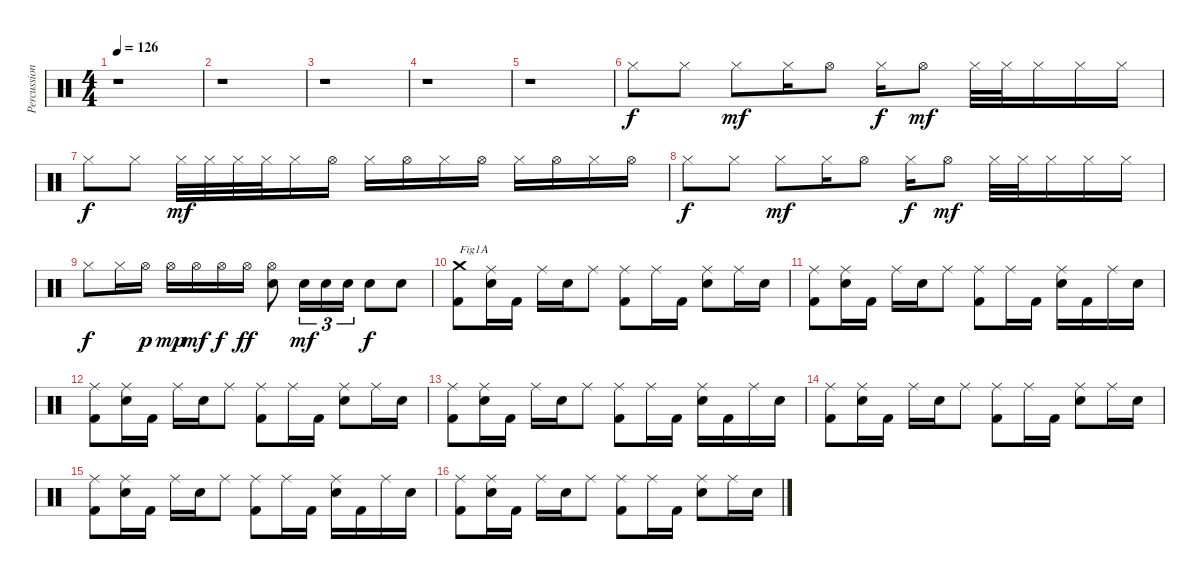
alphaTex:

\track ("Percussions" "Percussion") {instrument percussion}
\staff {score}
\articulation defaults
\ts (4 4)
\tempo 126
\clef neutral
\ks c
r.1{dy f} |
r.1 |
r.1 |
r.1 |
r.1 |
"Hi-Hat (closed)".8 "Hi-Hat (closed)".8 "Hi-Hat (closed)".8{dy mf} "Hi-Hat (closed)".16 "Hi-Hat (open)".8 "Hi-Hat (closed)".16{dy f} "Hi-Hat (open)".8{dy mf} "Hi-Hat (closed)".32 "Hi-Hat (closed)".32 "Hi-Hat (closed)".16 "Hi-Hat (closed)".16 "Hi-Hat (closed)".16 |
"Hi-Hat (closed)".8{dy f} "Hi-Hat (closed)".8 "Hi-Hat (closed)".32{dy mf} "Hi-Hat (closed)".32 "Hi-Hat (closed)".32 "Hi-Hat (closed)".32 "Hi-Hat (closed)".16 "Hi-Hat (open)".16 "Hi-Hat (closed)".16 "Hi-Hat (open)".16 "Hi-Hat (closed)".16 "Hi-Hat (open)".16 "Hi-Hat (closed)".16 "Hi-Hat (open)".16 "Hi-Hat (closed)".16 "Hi-Hat (open)".16 |
"Hi-Hat (closed)".8{dy f} "Hi-Hat (closed)".8 "Hi-Hat (closed)".8{dy mf} "Hi-Hat (closed)".16 "Hi-Hat (open)".8 "Hi-Hat (closed)".16{dy f} "Hi-Hat (open)".8{dy mf} "Hi-Hat (closed)".32 "Hi-Hat (closed)".32 "Hi-Hat (closed)".16 "Hi-Hat (closed)".16 "Hi-Hat (closed)".16 |
"Hi-Hat (closed)".8{dy f} "Hi-Hat (closed)".16 "Hi-Hat (open)".16{dy p} "Hi-Hat (open)".16{dy mp} "Hi-Hat (open)".16{dy mf} "Hi-Hat (open)".16{dy f} "Hi-Hat (open)".16{dy ff} ("Electric Snare (hit)" "Hi-Hat (open)").8 "Electric Snare (hit)".16{tu (3 2) dy mf} "Electric Snare (hit)".16{tu (3 2)} "Electric Snare (hit)".16{tu (3 2)} "Electric Snare (hit)".8{dy f} "Electric Snare (hit)".8 |
("Kick (hit) 2" "Crash medium (hit)").8{txt "Fig1A"} ("Electric Snare (hit)" "Ride (middle)").16 "Kick (hit) 2".16 "Ride (middle)".16 "Electric Snare (hit)".16 "Ride (middle)".8 ("Kick (hit) 2" "Ride (middle)").8 "Ride (middle)".16 "Kick (hit) 2".16 ("Electric Snare (hit)" "Ride (middle)").8 "Ride (middle)".16 "Electric Snare (hit)".16 |
("Kick (hit) 2" "Ride (middle)").8 ("Electric Snare (hit)" "Ride (middle)").16 "Kick (hit) 2".16 "Ride (middle)".16 "Electric Snare (hit)".16 "Ride (middle)".8 ("Kick (hit) 2" "Ride (middle)").8 "Ride (middle)".16 "Kick (hit) 2".16 ("Electric Snare (hit)" "Ride (middle)").16 "Kick (hit) 2".16 "Ride (middle)".16 "Electric Snare (hit)".16 |
("Kick (hit) 2" "Ride (middle)").8 ("Electric Snare (hit)" "Ride (middle)").16 "Kick (hit) 2".16 "Ride (middle)".16 "Electric Snare (hit)".16 "Ride (middle)".8 ("Kick (hit) 2" "Ride (middle)").8 "Ride (middle)".16 "Kick (hit) 2".16 ("Electric Snare (hit)" "Ride (middle)").8 "Ride (middle)".16 "Electric Snare (hit)".16 |
("Kick (hit) 2" "Ride (middle)").8 ("Electric Snare (hit)" "Ride (middle)").16 "Kick (hit) 2".16 "Ride (middle)".16 "Electric Snare (hit)".16 "Ride (middle)".8 ("Kick (hit) 2" "Ride (middle)").8 "Ride (middle)".16 "Kick (hit) 2".16 ("Electric Snare (hit)" "Ride (middle)").16 "Kick (hit) 2".16 "Ride (middle)".16 "Electric Snare (hit)".16 |
("Kick (hit) 2" "Ride (middle)").8 ("Electric Snare (hit)" "Ride (middle)").16 "Kick (hit) 2".16 "Ride (middle)".16 "Electric Snare (hit)".16 "Ride (middle)".8 ("Kick (hit) 2" "Ride (middle)").8 "Ride (middle)".16 "Kick (hit) 2".16 ("Electric Snare (hit)" "Ride (middle)").8 "Ride (middle)".16 "Electric Snare (hit)".16 |
("Kick (hit) 2" "Ride (middle)").8 ("Electric Snare (hit)" "Ride (middle)").16 "Kick (hit) 2".16 "Ride (middle)".16 "Electric Snare (hit)".16 "Ride (middle)".8 ("Kick (hit) 2" "Ride (middle)").8 "Ride (middle)".16 "Kick (hit) 2".16 ("Electric Snare (hit)" "Ride (middle)").16 "Kick (hit) 2".16 "Ride (middle)".16 "Electric Snare (hit)".16 |
("Kick (hit) 2" "Ride (middle)").8 ("Electric Snare (hit)" "Ride (middle)").16 "Kick (hit) 2".16 "Ride (middle)".16 "Electric Snare (hit)".16 "Ride (middle)".8 ("Kick (hit) 2" "Ride (middle)").8 "Ride (middle)".16 "Kick (hit) 2".16 ("Electric Snare (hit)" "Ride (middle)").8 "Ride (middle)".16 "Electric Snare (hit)".16
